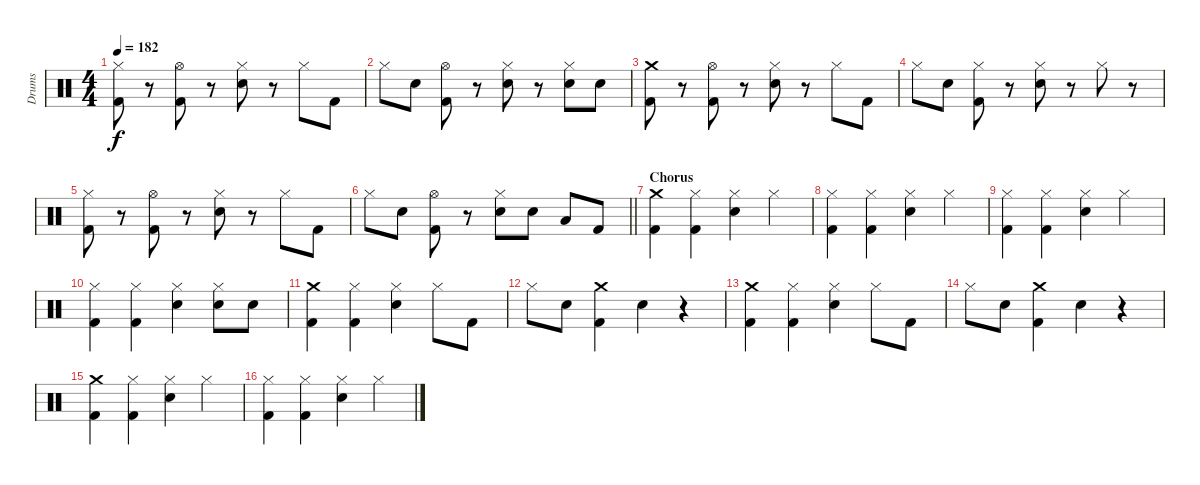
\track ("Drums" "Drums") {instrument percussion}
\staff {score}
\articulation defaults
\ts (4 4)
\tempo 182
\clef neutral
\ks c
("Hi-Hat (closed)" "Kick (hit) 2").8{dy f} r.8 ("Hi-Hat (open)" "Kick (hit) 2").8 r.8 ("Hi-Hat (closed)" "Snare (hit) 2").8 r.8 "Hi-Hat (closed)".8 "Kick (hit) 2".8 |
"Hi-Hat (closed)".8 "Snare (hit) 2".8 ("Hi-Hat (open)" "Kick (hit) 2").8 r.8 ("Hi-Hat (closed)" "Snare (hit) 2").8 r.8 ("Hi-Hat (closed)" "Snare (hit) 2").8 "Snare (hit) 2".8 |
("Crash medium (hit)" "Kick (hit) 2").8 r.8 ("Hi-Hat (open)" "Kick (hit) 2").8 r.8 ("Hi-Hat (closed)" "Snare (hit) 2").8 r.8 "Hi-Hat (closed)".8 "Kick (hit) 2".8 |
"Hi-Hat (closed)".8 "Snare (hit) 2".8 ("Hi-Hat (closed)" "Kick (hit) 2").8 r.8 ("Hi-Hat (closed)" "Snare (hit) 2").8 r.8 "Hi-Hat (closed)".8 r.8 |
("Hi-Hat (closed)" "Kick (hit) 2").8 r.8 ("Hi-Hat (open)" "Kick (hit) 2").8 r.8 ("Hi-Hat (closed)" "Snare (hit) 2").8 r.8 "Hi-Hat (closed)".8 "Kick (hit) 2".8 |
\barLineRight lightlight "Hi-Hat (closed)".8 "Snare (hit) 2".8
("Hi-Hat (open)" "Kick (hit) 2").8 r.8 ("Hi-Hat (closed)" "Snare (hit) 2").8 "Snare (hit) 2".8 "Low Tom (hit)".8 "Kick (hit) 2".8 |
\section ("" "Chorus")
("Crash medium (hit)" "Kick (hit) 2").4 ("Hi-Hat (closed)" "Kick (hit) 2").4 ("Hi-Hat (closed)" "Snare (hit) 2").4 "Hi-Hat (closed)".4 |
("Hi-Hat (closed)" "Kick (hit) 2").4 ("Hi-Hat (closed)" "Kick (hit) 2").4 ("Hi-Hat (closed)" "Snare (hit) 2").4 "Hi-Hat (closed)".4 |
("Hi-Hat (closed)" "Kick (hit) 2").4 ("Hi-Hat (closed)" "Kick (hit) 2").4 ("Hi-Hat (closed)" "Snare (hit) 2").4 "Hi-Hat (closed)".4 |
("Hi-Hat (closed)" "Kick (hit) 2").4 ("Hi-Hat (closed)" "Kick (hit) 2").4 ("Hi-Hat (closed)" "Snare (hit) 2").4 ("Hi-Hat (closed)" "Snare (hit) 2").8 "Snare (hit) 2".8 |
("Crash medium (hit)" "Kick (hit) 2").4 ("Hi-Hat (closed)" "Kick (hit) 2").4 ("Hi-Hat (closed)" "Snare (hit) 2").4 "Hi-Hat (closed)".8 "Kick (hit) 2".8 |
"Hi-Hat (closed)".8 "Snare (hit) 2".8 ("Crash medium (hit)" "Kick (hit) 2").4 "Snare (hit) 2".4 r.4 |
("Crash medium (hit)" "Kick (hit) 2").4 ("Hi-Hat (closed)" "Kick (hit) 2").4 ("Hi-Hat (closed)" "Snare (hit) 2").4 "Hi-Hat (closed)".8 "Kick (hit) 2".8 |
"Hi-Hat (closed)".8 "Snare (hit) 2".8 ("Crash medium (hit)" "Kick (hit) 2").4 "Snare (hit) 2".4 r.4 |
("Crash medium (hit)" "Kick (hit) 2").4 ("Hi-Hat (closed)" "Kick (hit) 2").4 ("Hi-Hat (closed)" "Snare (hit) 2").4 "Hi-Hat (closed)".4 |
("Hi-Hat (closed)" "Kick (hit) 2").4 ("Hi-Hat (closed)" "Kick (hit) 2").4 ("Hi-Hat (closed)" "Snare (hit) 2").4 "Hi-Hat (closed)".4
